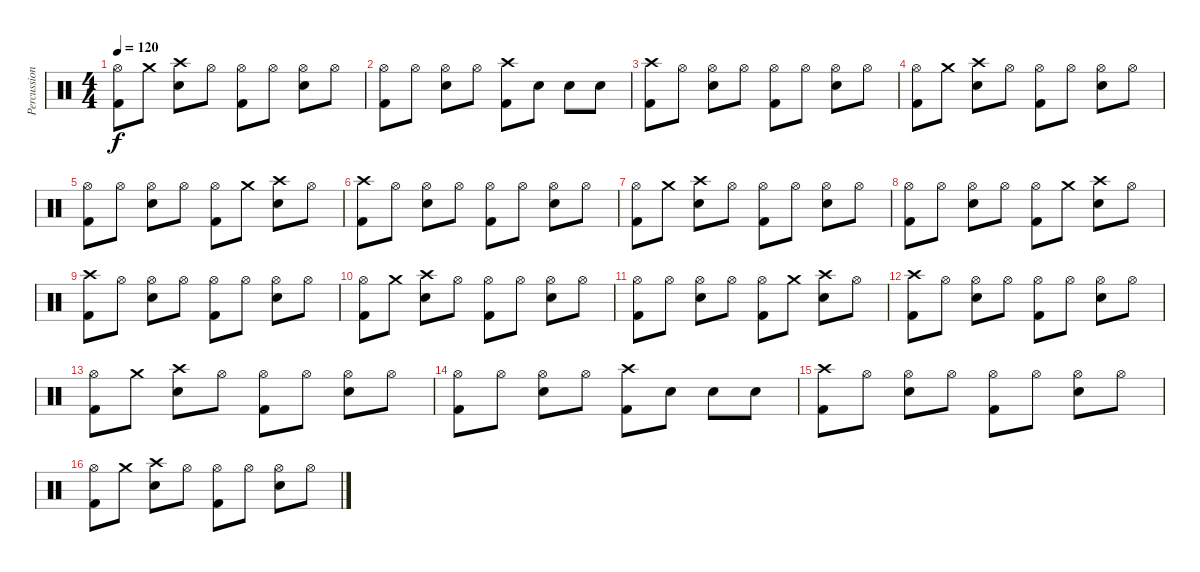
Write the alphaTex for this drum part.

\track ("Percussion" "Percussion") {instrument percussion}
\staff {score}
\articulation defaults
\ts (4 4)
\tempo 120
\clef neutral
\ks c
("Hi-Hat (open)" "Kick (hit) 2").8{dy f} "Crash medium (hit)".8 ("Crash high (hit)" "Snare (hit) 2").8 "Hi-Hat (open)".8 ("Hi-Hat (open)" "Kick (hit) 2").8 "Hi-Hat (open)".8 ("Hi-Hat (open)" "Snare (hit) 2").8 "Hi-Hat (open)".8 |
("Hi-Hat (open)" "Kick (hit) 2").8 "Hi-Hat (open)".8 ("Hi-Hat (open)" "Snare (hit) 2").8 "Hi-Hat (open)".8 ("Crash high (hit)" "Kick (hit) 2").8 "Snare (hit) 2".8 "Snare (hit) 2".8 "Snare (hit) 2".8 |
("Crash high (hit)" "Kick (hit) 2").8 "Hi-Hat (open)".8 ("Hi-Hat (open)" "Snare (hit) 2").8 "Hi-Hat (open)".8 ("Hi-Hat (open)" "Kick (hit) 2").8 "Hi-Hat (open)".8 ("Hi-Hat (open)" "Snare (hit) 2").8 "Hi-Hat (open)".8 |
("Hi-Hat (open)" "Kick (hit) 2").8 "Crash medium (hit)".8 ("Crash high (hit)" "Snare (hit) 2").8 "Hi-Hat (open)".8 ("Hi-Hat (open)" "Kick (hit) 2").8 "Hi-Hat (open)".8 ("Hi-Hat (open)" "Snare (hit) 2").8 "Hi-Hat (open)".8 |
("Hi-Hat (open)" "Kick (hit) 2").8 "Hi-Hat (open)".8 ("Hi-Hat (open)" "Snare (hit) 2").8 "Hi-Hat (open)".8 ("Hi-Hat (open)" "Kick (hit) 2").8 "Crash medium (hit)".8 ("Crash high (hit)" "Snare (hit) 2").8 "Hi-Hat (open)".8 |
("Crash high (hit)" "Kick (hit) 2").8 "Hi-Hat (open)".8 ("Hi-Hat (open)" "Snare (hit) 2").8 "Hi-Hat (open)".8 ("Hi-Hat (open)" "Kick (hit) 2").8 "Hi-Hat (open)".8 ("Hi-Hat (open)" "Snare (hit) 2").8 "Hi-Hat (open)".8 |
("Hi-Hat (open)" "Kick (hit) 2").8 "Crash medium (hit)".8 ("Crash high (hit)" "Snare (hit) 2").8 "Hi-Hat (open)".8 ("Hi-Hat (open)" "Kick (hit) 2").8 "Hi-Hat (open)".8 ("Hi-Hat (open)" "Snare (hit) 2").8 "Hi-Hat (open)".8 |
("Hi-Hat (open)" "Kick (hit) 2").8 "Hi-Hat (open)".8 ("Hi-Hat (open)" "Snare (hit) 2").8 "Hi-Hat (open)".8 ("Hi-Hat (open)" "Kick (hit) 2").8 "Crash medium (hit)".8 ("Crash high (hit)" "Snare (hit) 2").8 "Hi-Hat (open)".8 |
("Crash high (hit)" "Kick (hit) 2").8 "Hi-Hat (open)".8 ("Hi-Hat (open)" "Snare (hit) 2").8 "Hi-Hat (open)".8 ("Hi-Hat (open)" "Kick (hit) 2").8 "Hi-Hat (open)".8 ("Hi-Hat (open)" "Snare (hit) 2").8 "Hi-Hat (open)".8 |
("Hi-Hat (open)" "Kick (hit) 2").8 "Crash medium (hit)".8 ("Crash high (hit)" "Snare (hit) 2").8 "Hi-Hat (open)".8 ("Hi-Hat (open)" "Kick (hit) 2").8 "Hi-Hat (open)".8 ("Hi-Hat (open)" "Snare (hit) 2").8 "Hi-Hat (open)".8 |
("Hi-Hat (open)" "Kick (hit) 2").8 "Hi-Hat (open)".8 ("Hi-Hat (open)" "Snare (hit) 2").8 "Hi-Hat (open)".8 ("Hi-Hat (open)" "Kick (hit) 2").8 "Crash medium (hit)".8 ("Crash high (hit)" "Snare (hit) 2").8 "Hi-Hat (open)".8 |
("Crash high (hit)" "Kick (hit) 2").8 "Hi-Hat (open)".8 ("Hi-Hat (open)" "Snare (hit) 2").8 "Hi-Hat (open)".8 ("Hi-Hat (open)" "Kick (hit) 2").8 "Hi-Hat (open)".8 ("Hi-Hat (open)" "Snare (hit) 2").8 "Hi-Hat (open)".8 |
("Hi-Hat (open)" "Kick (hit) 2").8 "Crash medium (hit)".8 ("Crash high (hit)" "Snare (hit) 2").8 "Hi-Hat (open)".8 ("Hi-Hat (open)" "Kick (hit) 2").8 "Hi-Hat (open)".8 ("Hi-Hat (open)" "Snare (hit) 2").8 "Hi-Hat (open)".8 |
("Hi-Hat (open)" "Kick (hit) 2").8 "Hi-Hat (open)".8 ("Hi-Hat (open)" "Snare (hit) 2").8 "Hi-Hat (open)".8 ("Crash high (hit)" "Kick (hit) 2").8 "Snare (hit) 2".8 "Snare (hit) 2".8 "Snare (hit) 2".8 |
("Crash high (hit)" "Kick (hit) 2").8 "Hi-Hat (open)".8 ("Hi-Hat (open)" "Snare (hit) 2").8 "Hi-Hat (open)".8 ("Hi-Hat (open)" "Kick (hit) 2").8 "Hi-Hat (open)".8 ("Hi-Hat (open)" "Snare (hit) 2").8 "Hi-Hat (open)".8 |
("Hi-Hat (open)" "Kick (hit) 2").8 "Crash medium (hit)".8 ("Crash high (hit)" "Snare (hit) 2").8 "Hi-Hat (open)".8 ("Hi-Hat (open)" "Kick (hit) 2").8 "Hi-Hat (open)".8 ("Hi-Hat (open)" "Snare (hit) 2").8 "Hi-Hat (open)".8
